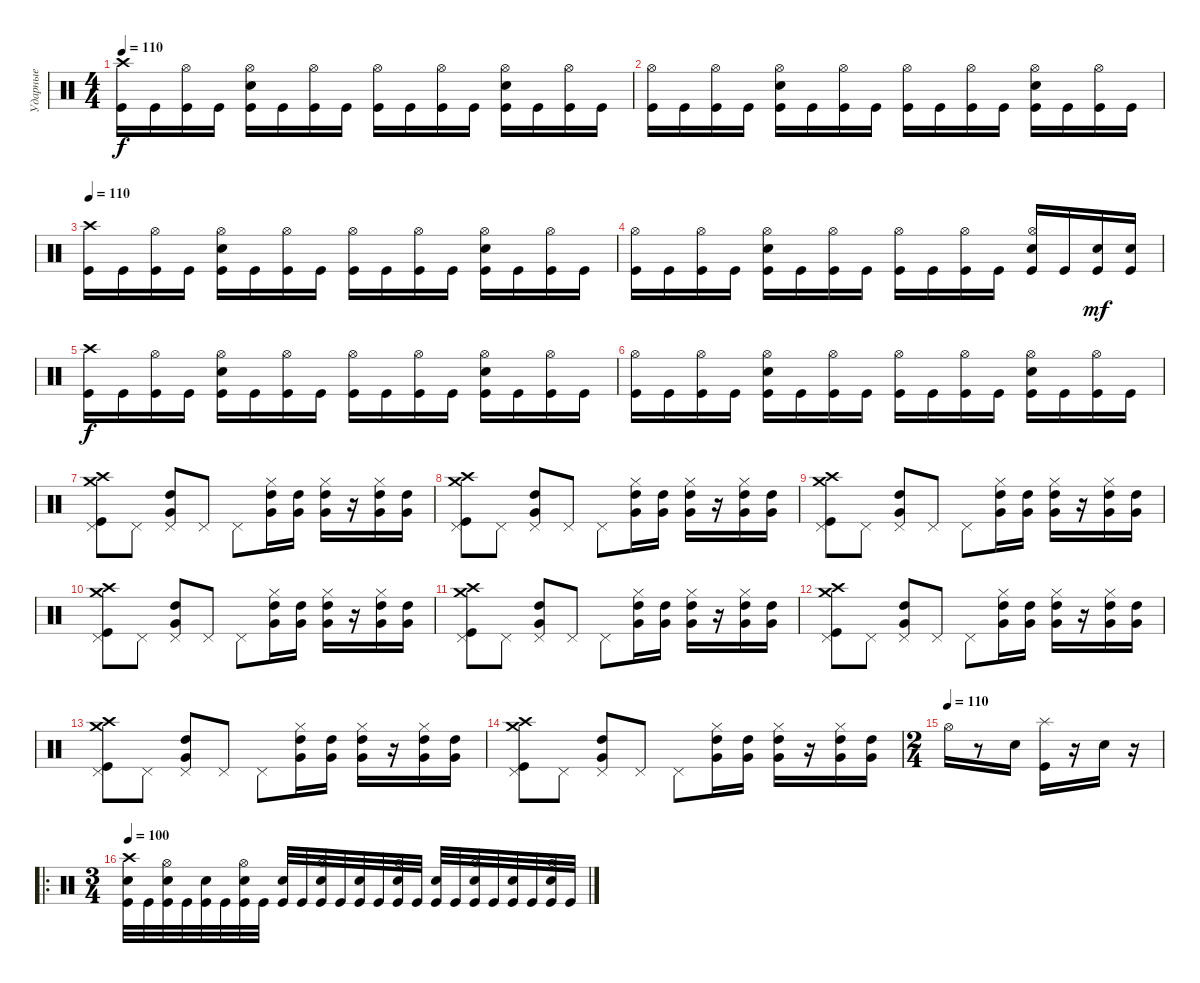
\track ("Ударные" "Ударные") {instrument percussion}
\staff {score}
\articulation defaults
\ts (4 4)
\tempo 110
\clef neutral
\ks c
("Crash high (hit)" "Kick (hit)").16{dy f} "Kick (hit)".16 ("Hi-Hat (open)" "Kick (hit)").16 "Kick (hit)".16 ("Hi-Hat (open)" "Snare (hit) 2" "Kick (hit)").16 "Kick (hit)".16 ("Hi-Hat (open)" "Kick (hit)").16 "Kick (hit)".16 ("Hi-Hat (open)" "Kick (hit)").16 "Kick (hit)".16 ("Hi-Hat (open)" "Kick (hit)").16 "Kick (hit)".16 ("Hi-Hat (open)" "Snare (hit) 2" "Kick (hit)").16 "Kick (hit)".16 ("Hi-Hat (open)" "Kick (hit)").16 "Kick (hit)".16 |
("Hi-Hat (open)" "Kick (hit)").16 "Kick (hit)".16 ("Hi-Hat (open)" "Kick (hit)").16 "Kick (hit)".16 ("Hi-Hat (open)" "Snare (hit) 2" "Kick (hit)").16 "Kick (hit)".16 ("Hi-Hat (open)" "Kick (hit)").16 "Kick (hit)".16 ("Hi-Hat (open)" "Kick (hit)").16 "Kick (hit)".16 ("Hi-Hat (open)" "Kick (hit)").16 "Kick (hit)".16 ("Hi-Hat (open)" "Snare (hit) 2" "Kick (hit)").16 "Kick (hit)".16 ("Hi-Hat (open)" "Kick (hit)").16 "Kick (hit)".16 |
\tempo 110
("Crash high (hit)" "Kick (hit)").16 "Kick (hit)".16 ("Hi-Hat (open)" "Kick (hit)").16 "Kick (hit)".16 ("Hi-Hat (open)" "Snare (hit) 2" "Kick (hit)").16 "Kick (hit)".16 ("Hi-Hat (open)" "Kick (hit)").16 "Kick (hit)".16 ("Hi-Hat (open)" "Kick (hit)").16 "Kick (hit)".16 ("Hi-Hat (open)" "Kick (hit)").16 "Kick (hit)".16 ("Hi-Hat (open)" "Snare (hit) 2" "Kick (hit)").16 "Kick (hit)".16 ("Hi-Hat (open)" "Kick (hit)").16 "Kick (hit)".16 |
("Hi-Hat (open)" "Kick (hit)").16 "Kick (hit)".16 ("Hi-Hat (open)" "Kick (hit)").16 "Kick (hit)".16 ("Hi-Hat (open)" "Snare (hit) 2" "Kick (hit)").16 "Kick (hit)".16 ("Hi-Hat (open)" "Kick (hit)").16 "Kick (hit)".16 ("Hi-Hat (open)" "Kick (hit)").16 "Kick (hit)".16 ("Hi-Hat (open)" "Kick (hit)").16 "Kick (hit)".16 ("Hi-Hat (open)" "Snare (hit) 2" "Kick (hit)").16 "Kick (hit)".16 ("Snare (hit) 2" "Kick (hit)").16{dy mf} ("Snare (hit) 2" "Kick (hit)").16 |
("Crash high (hit)" "Kick (hit)").16{dy f} "Kick (hit)".16 ("Hi-Hat (open)" "Kick (hit)").16 "Kick (hit)".16 ("Hi-Hat (open)" "Snare (hit) 2" "Kick (hit)").16 "Kick (hit)".16 ("Hi-Hat (open)" "Kick (hit)").16 "Kick (hit)".16 ("Hi-Hat (open)" "Kick (hit)").16 "Kick (hit)".16 ("Hi-Hat (open)" "Kick (hit)").16 "Kick (hit)".16 ("Hi-Hat (open)" "Snare (hit) 2" "Kick (hit)").16 "Kick (hit)".16 ("Hi-Hat (open)" "Kick (hit)").16 "Kick (hit)".16 |
("Hi-Hat (open)" "Kick (hit)").16 "Kick (hit)".16 ("Hi-Hat (open)" "Kick (hit)").16 "Kick (hit)".16 ("Hi-Hat (open)" "Snare (hit) 2" "Kick (hit)").16 "Kick (hit)".16 ("Hi-Hat (open)" "Kick (hit)").16 "Kick (hit)".16 ("Hi-Hat (open)" "Kick (hit)").16 "Kick (hit)".16 ("Hi-Hat (open)" "Kick (hit)").16 "Kick (hit)".16 ("Hi-Hat (open)" "Snare (hit) 2" "Kick (hit)").16 "Kick (hit)".16 ("Hi-Hat (open)" "Kick (hit)").16 "Kick (hit)".16 |
("Crash medium (hit)" "Crash high (hit)" "Kick (hit)" "Pedal Hi-Hat (hit)").8 "Pedal Hi-Hat (hit)".8 ("High Tom (hit)" "Very Low Tom (hit)" "Pedal Hi-Hat (hit)").8 "Pedal Hi-Hat (hit)".8 "Pedal Hi-Hat (hit)".8 ("High Tom (hit)" "Very Low Tom (hit)" "Hi-Hat (closed)").16 ("High Tom (hit)" "Very Low Tom (hit)").16 ("High Tom (hit)" "Very Low Tom (hit)" "Hi-Hat (closed)").16 r.16 ("High Tom (hit)" "Very Low Tom (hit)" "Hi-Hat (closed)").16 ("High Tom (hit)" "Very Low Tom (hit)").16 |
("Crash medium (hit)" "Crash high (hit)" "Kick (hit)" "Pedal Hi-Hat (hit)").8 "Pedal Hi-Hat (hit)".8 ("High Tom (hit)" "Very Low Tom (hit)" "Pedal Hi-Hat (hit)").8 "Pedal Hi-Hat (hit)".8 "Pedal Hi-Hat (hit)".8 ("High Tom (hit)" "Very Low Tom (hit)" "Hi-Hat (closed)").16 ("High Tom (hit)" "Very Low Tom (hit)").16 ("High Tom (hit)" "Very Low Tom (hit)" "Hi-Hat (closed)").16 r.16 ("High Tom (hit)" "Very Low Tom (hit)" "Hi-Hat (closed)").16 ("High Tom (hit)" "Very Low Tom (hit)").16 |
("Crash medium (hit)" "Crash high (hit)" "Kick (hit)" "Pedal Hi-Hat (hit)").8 "Pedal Hi-Hat (hit)".8 ("High Tom (hit)" "Very Low Tom (hit)" "Pedal Hi-Hat (hit)").8 "Pedal Hi-Hat (hit)".8 "Pedal Hi-Hat (hit)".8 ("High Tom (hit)" "Very Low Tom (hit)" "Hi-Hat (closed)").16 ("High Tom (hit)" "Very Low Tom (hit)").16 ("High Tom (hit)" "Very Low Tom (hit)" "Hi-Hat (closed)").16 r.16 ("High Tom (hit)" "Very Low Tom (hit)" "Hi-Hat (closed)").16 ("High Tom (hit)" "Very Low Tom (hit)").16 |
("Crash medium (hit)" "Crash high (hit)" "Kick (hit)" "Pedal Hi-Hat (hit)").8 "Pedal Hi-Hat (hit)".8 ("High Tom (hit)" "Very Low Tom (hit)" "Pedal Hi-Hat (hit)").8 "Pedal Hi-Hat (hit)".8 "Pedal Hi-Hat (hit)".8 ("High Tom (hit)" "Very Low Tom (hit)" "Hi-Hat (closed)").16 ("High Tom (hit)" "Very Low Tom (hit)").16 ("High Tom (hit)" "Very Low Tom (hit)" "Hi-Hat (closed)").16 r.16 ("High Tom (hit)" "Very Low Tom (hit)" "Hi-Hat (closed)").16 ("High Tom (hit)" "Very Low Tom (hit)").16 |
("Crash medium (hit)" "Crash high (hit)" "Kick (hit)" "Pedal Hi-Hat (hit)").8 "Pedal Hi-Hat (hit)".8 ("High Tom (hit)" "Very Low Tom (hit)" "Pedal Hi-Hat (hit)").8 "Pedal Hi-Hat (hit)".8 "Pedal Hi-Hat (hit)".8 ("High Tom (hit)" "Very Low Tom (hit)" "Hi-Hat (closed)").16 ("High Tom (hit)" "Very Low Tom (hit)").16 ("High Tom (hit)" "Very Low Tom (hit)" "Hi-Hat (closed)").16 r.16 ("High Tom (hit)" "Very Low Tom (hit)" "Hi-Hat (closed)").16 ("High Tom (hit)" "Very Low Tom (hit)").16 |
("Crash medium (hit)" "Crash high (hit)" "Kick (hit)" "Pedal Hi-Hat (hit)").8 "Pedal Hi-Hat (hit)".8 ("High Tom (hit)" "Very Low Tom (hit)" "Pedal Hi-Hat (hit)").8 "Pedal Hi-Hat (hit)".8 "Pedal Hi-Hat (hit)".8 ("High Tom (hit)" "Very Low Tom (hit)" "Hi-Hat (closed)").16 ("High Tom (hit)" "Very Low Tom (hit)").16 ("High Tom (hit)" "Very Low Tom (hit)" "Hi-Hat (closed)").16 r.16 ("High Tom (hit)" "Very Low Tom (hit)" "Hi-Hat (closed)").16 ("High Tom (hit)" "Very Low Tom (hit)").16 |
("Crash medium (hit)" "Crash high (hit)" "Kick (hit)" "Pedal Hi-Hat (hit)").8 "Pedal Hi-Hat (hit)".8 ("High Tom (hit)" "Very Low Tom (hit)" "Pedal Hi-Hat (hit)").8 "Pedal Hi-Hat (hit)".8 "Pedal Hi-Hat (hit)".8 ("High Tom (hit)" "Very Low Tom (hit)" "Hi-Hat (closed)").16 ("High Tom (hit)" "Very Low Tom (hit)").16 ("High Tom (hit)" "Very Low Tom (hit)" "Hi-Hat (closed)").16 r.16 ("High Tom (hit)" "Very Low Tom (hit)" "Hi-Hat (closed)").16 ("High Tom (hit)" "Very Low Tom (hit)").16 |
("Crash medium (hit)" "Crash high (hit)" "Kick (hit)" "Pedal Hi-Hat (hit)").8 "Pedal Hi-Hat (hit)".8 ("High Tom (hit)" "Very Low Tom (hit)" "Pedal Hi-Hat (hit)").8 "Pedal Hi-Hat (hit)".8 "Pedal Hi-Hat (hit)".8 ("High Tom (hit)" "Very Low Tom (hit)" "Hi-Hat (closed)").16 ("High Tom (hit)" "Very Low Tom (hit)").16 ("High Tom (hit)" "Very Low Tom (hit)" "Hi-Hat (closed)").16 r.16 ("High Tom (hit)" "Very Low Tom (hit)" "Hi-Hat (closed)").16 ("High Tom (hit)" "Very Low Tom (hit)").16 |
\ts (2 4)
\tempo (110)
"Hi-Hat (open)".16 r.8 "Snare (hit) 2".16 ("Splash (hit)" "Kick (hit)").16 r.16 "Snare (hit) 2".16 r.16 |
\ro
\ts (3 4)
\tempo 100
("Snare (hit) 2" "Crash high (hit)" "Kick (hit)").32 "Kick (hit)".32 ("Snare (hit) 2" "Hi-Hat (open)" "Kick (hit)").32 "Kick (hit)".32 ("Snare (hit) 2" "Kick (hit)").32 "Kick (hit)".32 ("Snare (hit) 2" "Hi-Hat (open)" "Kick (hit)").32 "Kick (hit)".32 ("Snare (hit) 2" "Kick (hit)").32 "Kick (hit)".32 ("Snare (hit) 2" "Hi-Hat (open)" "Kick (hit)").32 "Kick (hit)".32 ("Snare (hit) 2" "Kick (hit)").32 "Kick (hit)".32 ("Snare (hit) 2" "Hi-Hat (open)" "Kick (hit)").32 "Kick (hit)".32 ("Snare (hit) 2" "Kick (hit)").32 "Kick (hit)".32 ("Snare (hit) 2" "Hi-Hat (open)" "Kick (hit)").32 "Kick (hit)".32 ("Snare (hit) 2" "Kick (hit)").32 "Kick (hit)".32 ("Snare (hit) 2" "Hi-Hat (open)" "Kick (hit)").32 "Kick (hit)".32
